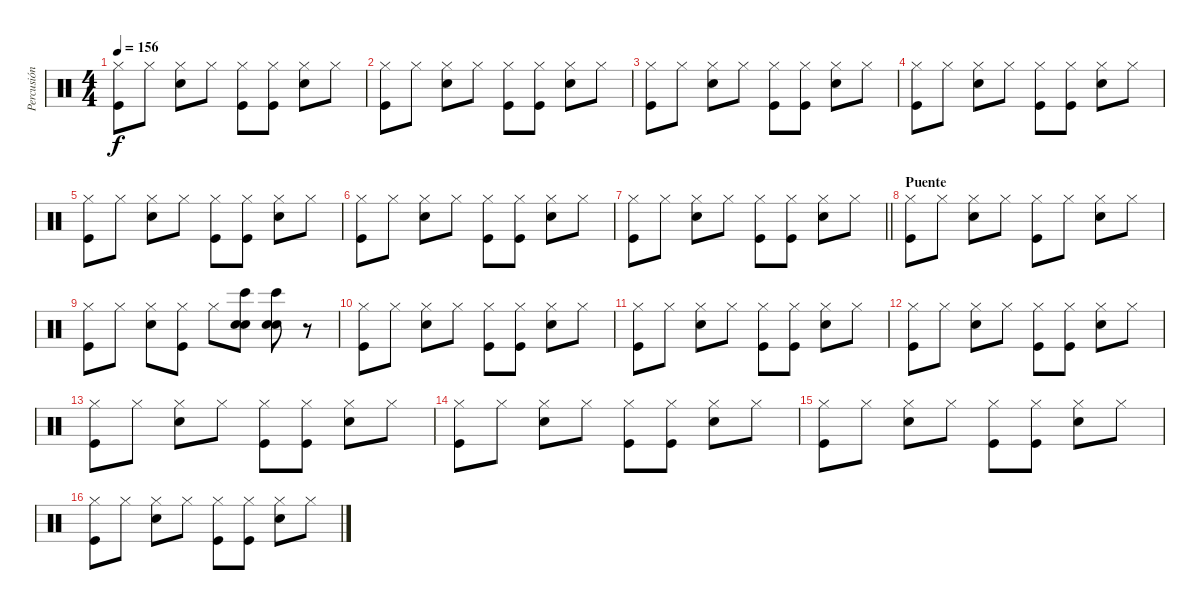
\track ("Percusión" "Percusión") {instrument percussion}
\staff {score}
\articulation defaults
\ts (4 4)
\tempo 156
\clef neutral
\ks c
("Hi-Hat (closed)" "Kick (hit)").8{dy f} "Hi-Hat (closed)".8 ("Hi-Hat (closed)" "Electric Snare (hit)").8 "Hi-Hat (closed)".8 ("Hi-Hat (closed)" "Kick (hit)").8 ("Hi-Hat (closed)" "Kick (hit)").8 ("Hi-Hat (closed)" "Electric Snare (hit)").8 "Hi-Hat (closed)".8 |
("Hi-Hat (closed)" "Kick (hit)").8 "Hi-Hat (closed)".8 ("Hi-Hat (closed)" "Electric Snare (hit)").8 "Hi-Hat (closed)".8 ("Hi-Hat (closed)" "Kick (hit)").8 ("Hi-Hat (closed)" "Kick (hit)").8 ("Hi-Hat (closed)" "Electric Snare (hit)").8 "Hi-Hat (closed)".8 |
("Hi-Hat (closed)" "Kick (hit)").8 "Hi-Hat (closed)".8 ("Hi-Hat (closed)" "Electric Snare (hit)").8 "Hi-Hat (closed)".8 ("Hi-Hat (closed)" "Kick (hit)").8 ("Hi-Hat (closed)" "Kick (hit)").8 ("Hi-Hat (closed)" "Electric Snare (hit)").8 "Hi-Hat (closed)".8 |
("Hi-Hat (closed)" "Kick (hit)").8 "Hi-Hat (closed)".8 ("Hi-Hat (closed)" "Electric Snare (hit)").8 "Hi-Hat (closed)".8 ("Hi-Hat (closed)" "Kick (hit)").8 ("Hi-Hat (closed)" "Kick (hit)").8 ("Hi-Hat (closed)" "Electric Snare (hit)").8 "Hi-Hat (closed)".8 |
("Hi-Hat (closed)" "Kick (hit)").8 "Hi-Hat (closed)".8 ("Hi-Hat (closed)" "Electric Snare (hit)").8 "Hi-Hat (closed)".8 ("Hi-Hat (closed)" "Kick (hit)").8 ("Hi-Hat (closed)" "Kick (hit)").8 ("Hi-Hat (closed)" "Electric Snare (hit)").8 "Hi-Hat (closed)".8 |
("Hi-Hat (closed)" "Kick (hit)").8 "Hi-Hat (closed)".8 ("Hi-Hat (closed)" "Electric Snare (hit)").8 "Hi-Hat (closed)".8 ("Hi-Hat (closed)" "Kick (hit)").8 ("Hi-Hat (closed)" "Kick (hit)").8 ("Hi-Hat (closed)" "Electric Snare (hit)").8 "Hi-Hat (closed)".8 |
\barLineRight lightlight
("Hi-Hat (closed)" "Kick (hit)").8 "Hi-Hat (closed)".8 ("Hi-Hat (closed)" "Electric Snare (hit)").8 "Hi-Hat (closed)".8 ("Hi-Hat (closed)" "Kick (hit)").8 ("Hi-Hat (closed)" "Kick (hit)").8 ("Hi-Hat (closed)" "Electric Snare (hit)").8 "Hi-Hat (closed)".8 |
\section ("" "Puente")
("Hi-Hat (closed)" "Kick (hit)").8 "Hi-Hat (closed)".8 ("Hi-Hat (closed)" "Electric Snare (hit)").8 "Hi-Hat (closed)".8 ("Hi-Hat (closed)" "Kick (hit)").8 "Hi-Hat (closed)".8 ("Hi-Hat (closed)" "Electric Snare (hit)").8 "Hi-Hat (closed)".8 |
("Hi-Hat (closed)" "Kick (hit)").8 "Hi-Hat (closed)".8 ("Hi-Hat (closed)" "Electric Snare (hit)").8 ("Hi-Hat (closed)" "Kick (hit)").8 "Hi-Hat (closed)".8 ("Electric Snare (hit)" "Electric Snare (hit)" "Bongo High (hit)").8 ("Electric Snare (hit)" "Electric Snare (hit)" "Bongo High (hit)").8 r.8 |
("Hi-Hat (closed)" "Kick (hit)").8 "Hi-Hat (closed)".8 ("Hi-Hat (closed)" "Electric Snare (hit)").8 "Hi-Hat (closed)".8 ("Hi-Hat (closed)" "Kick (hit)").8 ("Hi-Hat (closed)" "Kick (hit)").8 ("Hi-Hat (closed)" "Electric Snare (hit)").8 "Hi-Hat (closed)".8 |
("Hi-Hat (closed)" "Kick (hit)").8 "Hi-Hat (closed)".8 ("Hi-Hat (closed)" "Electric Snare (hit)").8 "Hi-Hat (closed)".8 ("Hi-Hat (closed)" "Kick (hit)").8 ("Hi-Hat (closed)" "Kick (hit)").8 ("Hi-Hat (closed)" "Electric Snare (hit)").8 "Hi-Hat (closed)".8 |
("Hi-Hat (closed)" "Kick (hit)").8 "Hi-Hat (closed)".8 ("Hi-Hat (closed)" "Electric Snare (hit)").8 "Hi-Hat (closed)".8 ("Hi-Hat (closed)" "Kick (hit)").8 ("Hi-Hat (closed)" "Kick (hit)").8 ("Hi-Hat (closed)" "Electric Snare (hit)").8 "Hi-Hat (closed)".8 |
("Hi-Hat (closed)" "Kick (hit)").8 "Hi-Hat (closed)".8 ("Hi-Hat (closed)" "Electric Snare (hit)").8 "Hi-Hat (closed)".8 ("Hi-Hat (closed)" "Kick (hit)").8 ("Hi-Hat (closed)" "Kick (hit)").8 ("Hi-Hat (closed)" "Electric Snare (hit)").8 "Hi-Hat (closed)".8 |
("Hi-Hat (closed)" "Kick (hit)").8 "Hi-Hat (closed)".8 ("Hi-Hat (closed)" "Electric Snare (hit)").8 "Hi-Hat (closed)".8 ("Hi-Hat (closed)" "Kick (hit)").8 ("Hi-Hat (closed)" "Kick (hit)").8 ("Hi-Hat (closed)" "Electric Snare (hit)").8 "Hi-Hat (closed)".8 |
("Hi-Hat (closed)" "Kick (hit)").8 "Hi-Hat (closed)".8 ("Hi-Hat (closed)" "Electric Snare (hit)").8 "Hi-Hat (closed)".8 ("Hi-Hat (closed)" "Kick (hit)").8 ("Hi-Hat (closed)" "Kick (hit)").8 ("Hi-Hat (closed)" "Electric Snare (hit)").8 "Hi-Hat (closed)".8 |
("Hi-Hat (closed)" "Kick (hit)").8 "Hi-Hat (closed)".8 ("Hi-Hat (closed)" "Electric Snare (hit)").8 "Hi-Hat (closed)".8 ("Hi-Hat (closed)" "Kick (hit)").8 ("Hi-Hat (closed)" "Kick (hit)").8 ("Hi-Hat (closed)" "Electric Snare (hit)").8 "Hi-Hat (closed)".8
